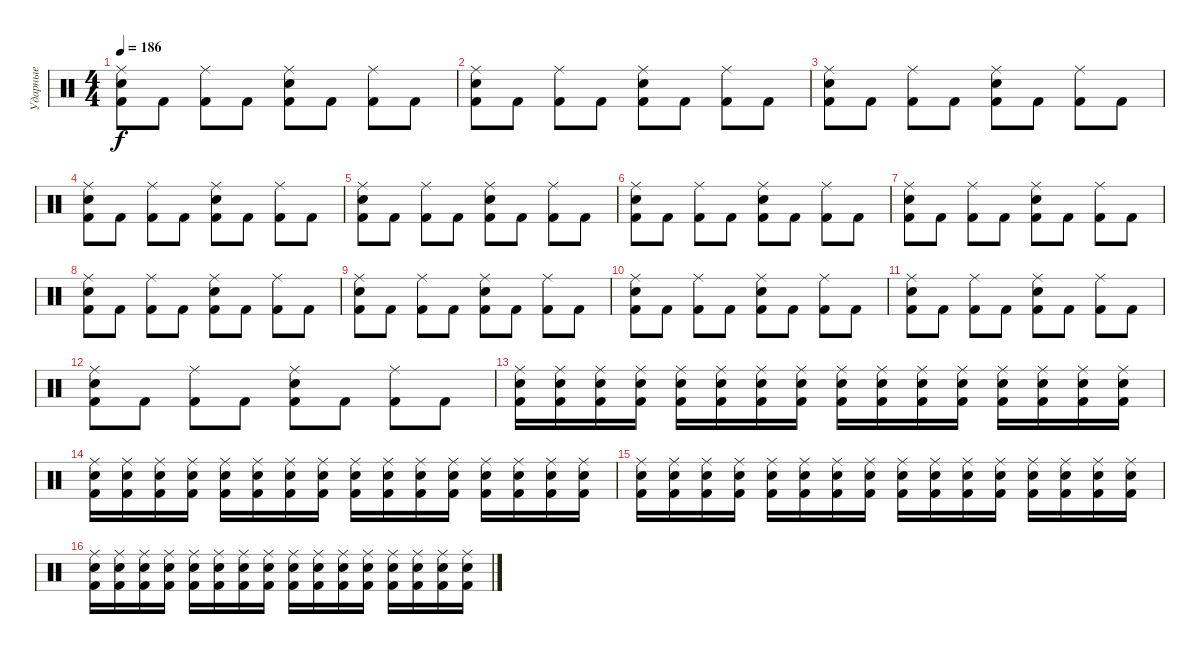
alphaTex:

\track ("Ударные" "Ударные") {instrument percussion}
\staff {score}
\articulation defaults
\ts (4 4)
\tempo 186
\clef neutral
\ks c
("Ride (middle)" "Snare (hit) 2" "Kick (hit) 2").8{dy f} "Kick (hit) 2".8 ("Ride (middle)" "Kick (hit) 2").8 "Kick (hit) 2".8 ("Ride (middle)" "Snare (hit) 2" "Kick (hit) 2").8 "Kick (hit) 2".8 ("Ride (middle)" "Kick (hit) 2").8 "Kick (hit) 2".8 |
("Ride (middle)" "Snare (hit) 2" "Kick (hit) 2").8 "Kick (hit) 2".8 ("Ride (middle)" "Kick (hit) 2").8 "Kick (hit) 2".8 ("Ride (middle)" "Snare (hit) 2" "Kick (hit) 2").8 "Kick (hit) 2".8 ("Ride (middle)" "Kick (hit) 2").8 "Kick (hit) 2".8 |
("Ride (middle)" "Snare (hit) 2" "Kick (hit) 2").8 "Kick (hit) 2".8 ("Ride (middle)" "Kick (hit) 2").8 "Kick (hit) 2".8 ("Ride (middle)" "Snare (hit) 2" "Kick (hit) 2").8 "Kick (hit) 2".8 ("Ride (middle)" "Kick (hit) 2").8 "Kick (hit) 2".8 |
("Ride (middle)" "Snare (hit) 2" "Kick (hit) 2").8 "Kick (hit) 2".8 ("Ride (middle)" "Kick (hit) 2").8 "Kick (hit) 2".8 ("Ride (middle)" "Snare (hit) 2" "Kick (hit) 2").8 "Kick (hit) 2".8 ("Ride (middle)" "Kick (hit) 2").8 "Kick (hit) 2".8 |
("Ride (middle)" "Snare (hit) 2" "Kick (hit) 2").8 "Kick (hit) 2".8 ("Ride (middle)" "Kick (hit) 2").8 "Kick (hit) 2".8 ("Ride (middle)" "Snare (hit) 2" "Kick (hit) 2").8 "Kick (hit) 2".8 ("Ride (middle)" "Kick (hit) 2").8 "Kick (hit) 2".8 |
("Ride (middle)" "Snare (hit) 2" "Kick (hit) 2").8 "Kick (hit) 2".8 ("Ride (middle)" "Kick (hit) 2").8 "Kick (hit) 2".8 ("Ride (middle)" "Snare (hit) 2" "Kick (hit) 2").8 "Kick (hit) 2".8 ("Ride (middle)" "Kick (hit) 2").8 "Kick (hit) 2".8 |
("Ride (middle)" "Snare (hit) 2" "Kick (hit) 2").8 "Kick (hit) 2".8 ("Ride (middle)" "Kick (hit) 2").8 "Kick (hit) 2".8 ("Ride (middle)" "Snare (hit) 2" "Kick (hit) 2").8 "Kick (hit) 2".8 ("Ride (middle)" "Kick (hit) 2").8 "Kick (hit) 2".8 |
("Ride (middle)" "Snare (hit) 2" "Kick (hit) 2").8 "Kick (hit) 2".8 ("Ride (middle)" "Kick (hit) 2").8 "Kick (hit) 2".8 ("Ride (middle)" "Snare (hit) 2" "Kick (hit) 2").8 "Kick (hit) 2".8 ("Ride (middle)" "Kick (hit) 2").8 "Kick (hit) 2".8 |
("Ride (middle)" "Snare (hit) 2" "Kick (hit) 2").8 "Kick (hit) 2".8 ("Ride (middle)" "Kick (hit) 2").8 "Kick (hit) 2".8 ("Ride (middle)" "Snare (hit) 2" "Kick (hit) 2").8 "Kick (hit) 2".8 ("Ride (middle)" "Kick (hit) 2").8 "Kick (hit) 2".8 |
("Ride (middle)" "Snare (hit) 2" "Kick (hit) 2").8 "Kick (hit) 2".8 ("Ride (middle)" "Kick (hit) 2").8 "Kick (hit) 2".8 ("Ride (middle)" "Snare (hit) 2" "Kick (hit) 2").8 "Kick (hit) 2".8 ("Ride (middle)" "Kick (hit) 2").8 "Kick (hit) 2".8 |
("Ride (middle)" "Snare (hit) 2" "Kick (hit) 2").8 "Kick (hit) 2".8 ("Ride (middle)" "Kick (hit) 2").8 "Kick (hit) 2".8 ("Ride (middle)" "Snare (hit) 2" "Kick (hit) 2").8 "Kick (hit) 2".8 ("Ride (middle)" "Kick (hit) 2").8 "Kick (hit) 2".8 |
("Ride (middle)" "Snare (hit) 2" "Kick (hit) 2").8 "Kick (hit) 2".8 ("Ride (middle)" "Kick (hit) 2").8 "Kick (hit) 2".8 ("Ride (middle)" "Snare (hit) 2" "Kick (hit) 2").8 "Kick (hit) 2".8 ("Ride (middle)" "Kick (hit) 2").8 "Kick (hit) 2".8 |
("Kick (hit) 2" "Ride (middle)" "Snare (hit) 2").16 ("Kick (hit) 2" "Ride (middle)" "Snare (hit) 2").16 ("Kick (hit) 2" "Ride (middle)" "Snare (hit) 2").16 ("Kick (hit) 2" "Ride (middle)" "Snare (hit) 2").16 ("Kick (hit) 2" "Ride (middle)" "Snare (hit) 2").16 ("Kick (hit) 2" "Ride (middle)" "Snare (hit) 2").16 ("Kick (hit) 2" "Ride (middle)" "Snare (hit) 2").16 ("Kick (hit) 2" "Ride (middle)" "Snare (hit) 2").16 ("Kick (hit) 2" "Ride (middle)" "Snare (hit) 2").16 ("Kick (hit) 2" "Ride (middle)" "Snare (hit) 2").16 ("Kick (hit) 2" "Ride (middle)" "Snare (hit) 2").16 ("Kick (hit) 2" "Ride (middle)" "Snare (hit) 2").16 ("Kick (hit) 2" "Ride (middle)" "Snare (hit) 2").16 ("Kick (hit) 2" "Ride (middle)" "Snare (hit) 2").16 ("Kick (hit) 2" "Ride (middle)" "Snare (hit) 2").16 ("Kick (hit) 2" "Ride (middle)" "Snare (hit) 2").16 |
("Kick (hit) 2" "Ride (middle)" "Snare (hit) 2").16 ("Kick (hit) 2" "Ride (middle)" "Snare (hit) 2").16 ("Kick (hit) 2" "Ride (middle)" "Snare (hit) 2").16 ("Kick (hit) 2" "Ride (middle)" "Snare (hit) 2").16 ("Kick (hit) 2" "Ride (middle)" "Snare (hit) 2").16 ("Kick (hit) 2" "Ride (middle)" "Snare (hit) 2").16 ("Kick (hit) 2" "Ride (middle)" "Snare (hit) 2").16 ("Kick (hit) 2" "Ride (middle)" "Snare (hit) 2").16 ("Kick (hit) 2" "Ride (middle)" "Snare (hit) 2").16 ("Kick (hit) 2" "Ride (middle)" "Snare (hit) 2").16 ("Kick (hit) 2" "Ride (middle)" "Snare (hit) 2").16 ("Kick (hit) 2" "Ride (middle)" "Snare (hit) 2").16 ("Kick (hit) 2" "Ride (middle)" "Snare (hit) 2").16 ("Kick (hit) 2" "Ride (middle)" "Snare (hit) 2").16 ("Kick (hit) 2" "Ride (middle)" "Snare (hit) 2").16 ("Kick (hit) 2" "Ride (middle)" "Snare (hit) 2").16 |
("Kick (hit) 2" "Ride (middle)" "Snare (hit) 2").16 ("Kick (hit) 2" "Ride (middle)" "Snare (hit) 2").16 ("Kick (hit) 2" "Ride (middle)" "Snare (hit) 2").16 ("Kick (hit) 2" "Ride (middle)" "Snare (hit) 2").16 ("Kick (hit) 2" "Ride (middle)" "Snare (hit) 2").16 ("Kick (hit) 2" "Ride (middle)" "Snare (hit) 2").16 ("Kick (hit) 2" "Ride (middle)" "Snare (hit) 2").16 ("Kick (hit) 2" "Ride (middle)" "Snare (hit) 2").16 ("Kick (hit) 2" "Ride (middle)" "Snare (hit) 2").16 ("Kick (hit) 2" "Ride (middle)" "Snare (hit) 2").16 ("Kick (hit) 2" "Ride (middle)" "Snare (hit) 2").16 ("Kick (hit) 2" "Ride (middle)" "Snare (hit) 2").16 ("Kick (hit) 2" "Ride (middle)" "Snare (hit) 2").16 ("Kick (hit) 2" "Ride (middle)" "Snare (hit) 2").16 ("Kick (hit) 2" "Ride (middle)" "Snare (hit) 2").16 ("Kick (hit) 2" "Ride (middle)" "Snare (hit) 2").16 |
("Kick (hit) 2" "Ride (middle)" "Snare (hit) 2").16 ("Kick (hit) 2" "Ride (middle)" "Snare (hit) 2").16 ("Kick (hit) 2" "Ride (middle)" "Snare (hit) 2").16 ("Kick (hit) 2" "Ride (middle)" "Snare (hit) 2").16 ("Kick (hit) 2" "Ride (middle)" "Snare (hit) 2").16 ("Kick (hit) 2" "Ride (middle)" "Snare (hit) 2").16 ("Kick (hit) 2" "Ride (middle)" "Snare (hit) 2").16 ("Kick (hit) 2" "Ride (middle)" "Snare (hit) 2").16 ("Kick (hit) 2" "Ride (middle)" "Snare (hit) 2").16 ("Kick (hit) 2" "Ride (middle)" "Snare (hit) 2").16 ("Kick (hit) 2" "Ride (middle)" "Snare (hit) 2").16 ("Kick (hit) 2" "Ride (middle)" "Snare (hit) 2").16 ("Kick (hit) 2" "Ride (middle)" "Snare (hit) 2").16 ("Kick (hit) 2" "Ride (middle)" "Snare (hit) 2").16 ("Kick (hit) 2" "Ride (middle)" "Snare (hit) 2").16 ("Kick (hit) 2" "Ride (middle)" "Snare (hit) 2").16
